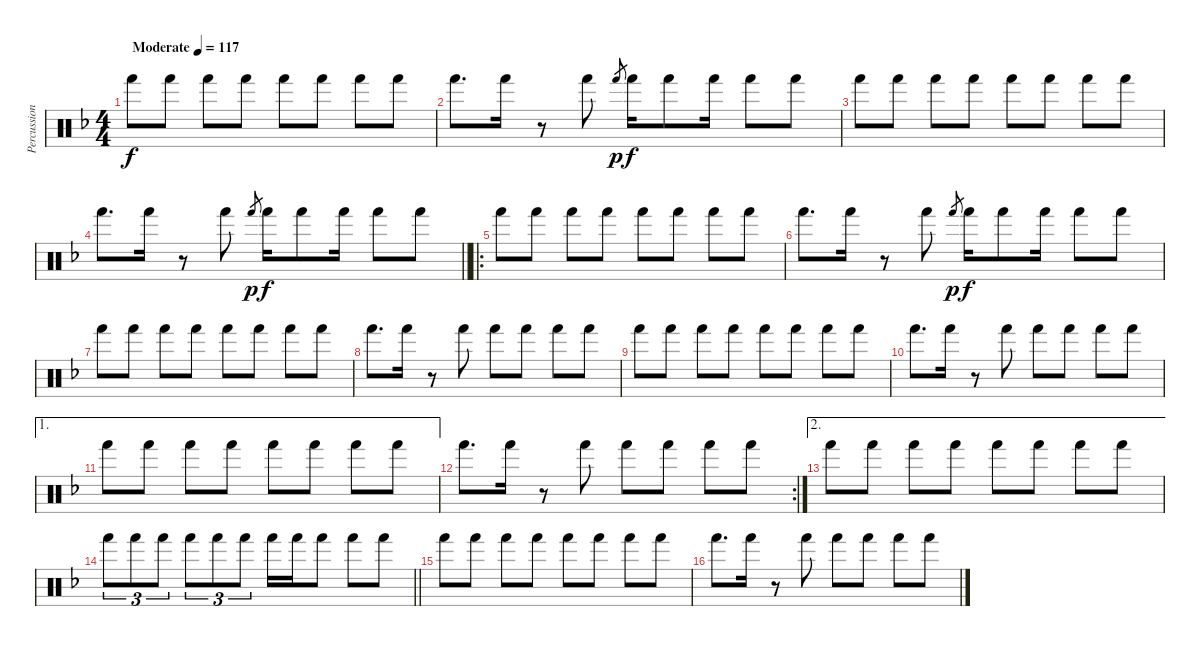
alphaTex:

\track ("Percussion" "Percussion") {instrument percussion}
\staff {score}
\articulation defaults
\ts (4 4)
\tempo (117 "Moderate")
\clef neutral
\ks f "Hand (hit)".8{dy f} "Hand (hit)".8 "Hand (hit)".8 "Hand (hit)".8 "Hand (hit)".8 "Hand (hit)".8 "Hand (hit)".8 "Hand (hit)".8
|
"Hand (hit)".8{d} "Hand (hit)".16 r.8 "Hand (hit)".8 "Hand (hit)".8{gr dy p} "Hand (hit)".16{dy f} "Hand (hit)".8 "Hand (hit)".16 "Hand (hit)".8 "Hand (hit)".8 |
"Hand (hit)".8 "Hand (hit)".8 "Hand (hit)".8 "Hand (hit)".8 "Hand (hit)".8 "Hand (hit)".8 "Hand (hit)".8 "Hand (hit)".8 |
\barLineRight lightlight "Hand (hit)".8{d} "Hand (hit)".16
r.8 "Hand (hit)".8 "Hand (hit)".8{gr dy p} "Hand (hit)".16{dy f} "Hand (hit)".8 "Hand (hit)".16 "Hand (hit)".8 "Hand (hit)".8 |
\ro "Hand (hit)".8 "Hand (hit)".8 "Hand (hit)".8 "Hand (hit)".8 "Hand (hit)".8 "Hand (hit)".8 "Hand (hit)".8 "Hand (hit)".8
|
"Hand (hit)".8{d} "Hand (hit)".16 r.8 "Hand (hit)".8 "Hand (hit)".8{gr dy p} "Hand (hit)".16{dy f} "Hand (hit)".8 "Hand (hit)".16 "Hand (hit)".8 "Hand (hit)".8 |
"Hand (hit)".8 "Hand (hit)".8 "Hand (hit)".8 "Hand (hit)".8 "Hand (hit)".8 "Hand (hit)".8 "Hand (hit)".8 "Hand (hit)".8 |
"Hand (hit)".8{d} "Hand (hit)".16 r.8 "Hand (hit)".8 "Hand (hit)".8 "Hand (hit)".8 "Hand (hit)".8 "Hand (hit)".8 |
"Hand (hit)".8 "Hand (hit)".8 "Hand (hit)".8 "Hand (hit)".8 "Hand (hit)".8 "Hand (hit)".8 "Hand (hit)".8 "Hand (hit)".8 |
"Hand (hit)".8{d} "Hand (hit)".16 r.8 "Hand (hit)".8 "Hand (hit)".8 "Hand (hit)".8 "Hand (hit)".8 "Hand (hit)".8 |
\ae 1 "Hand (hit)".8 "Hand (hit)".8 "Hand (hit)".8 "Hand (hit)".8 "Hand (hit)".8 "Hand (hit)".8 "Hand (hit)".8 "Hand (hit)".8
|
\rc 2 "Hand (hit)".8{d} "Hand (hit)".16
r.8 "Hand (hit)".8 "Hand (hit)".8 "Hand (hit)".8 "Hand (hit)".8 "Hand (hit)".8 |
\ae 2 "Hand (hit)".8 "Hand (hit)".8 "Hand (hit)".8 "Hand (hit)".8 "Hand (hit)".8 "Hand (hit)".8 "Hand (hit)".8 "Hand (hit)".8
|
\barLineRight lightlight "Hand (hit)".8{tu (3 2)} "Hand (hit)".8{tu (3 2)} "Hand (hit)".8{tu (3 2)} "Hand (hit)".8{tu (3 2)} "Hand (hit)".8{tu (3 2)} "Hand (hit)".8{tu (3 2)} "Hand (hit)".16 "Hand (hit)".16 "Hand (hit)".8 "Hand (hit)".8 "Hand (hit)".8
|
"Hand (hit)".8 "Hand (hit)".8 "Hand (hit)".8 "Hand (hit)".8 "Hand (hit)".8 "Hand (hit)".8 "Hand (hit)".8 "Hand (hit)".8 |
"Hand (hit)".8{d} "Hand (hit)".16 r.8 "Hand (hit)".8 "Hand (hit)".8 "Hand (hit)".8 "Hand (hit)".8 "Hand (hit)".8
